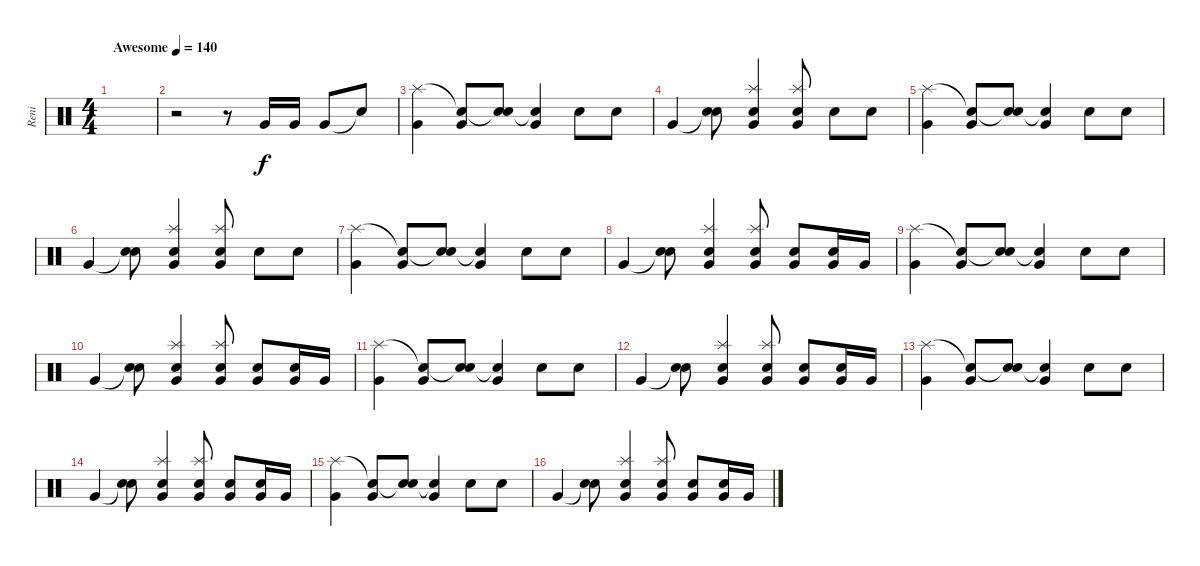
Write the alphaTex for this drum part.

\track ("Reni" "Reni") {instrument percussion}
\staff {score}
\articulation defaults
\ts (4 4)
\tempo (140 "Awesome")
\clef neutral
\ks c
|
r.2 r.8 "Very Low Tom (hit)".16 "Very Low Tom (hit)".16 "Very Low Tom (hit)".8 "Snare (hit)"{t}.8 |
("Splash (hit)" "Very Low Tom (hit)").4 ("Snare (hit)"{t} "Very Low Tom (hit)").8 ("Snare (hit)"{t} "Electric Snare (hit)").8 ("Snare (hit)"{t} "Very Low Tom (hit)").4 "Snare (hit) 2".8 "Electric Snare (hit)".8 |
"Very Low Tom (hit)".4 ("Snare (hit)"{t} "Snare (hit) 2").8 ("Splash (hit)" "Electric Snare (hit)" "Very Low Tom (hit)").4 ("Splash (hit)" "Electric Snare (hit)" "Very Low Tom (hit)").8 "Snare (hit) 2".8 "Electric Snare (hit)".8 |
("Splash (hit)" "Very Low Tom (hit)").4 ("Snare (hit)"{t} "Very Low Tom (hit)").8 ("Snare (hit)"{t} "Electric Snare (hit)").8 ("Snare (hit)"{t} "Very Low Tom (hit)").4 "Snare (hit) 2".8 "Electric Snare (hit)".8 |
"Very Low Tom (hit)".4 ("Snare (hit)"{t} "Snare (hit) 2").8 ("Splash (hit)" "Electric Snare (hit)" "Very Low Tom (hit)").4 ("Splash (hit)" "Electric Snare (hit)" "Very Low Tom (hit)").8 "Snare (hit) 2".8 "Electric Snare (hit)".8 |
("Splash (hit)" "Very Low Tom (hit)").4 ("Snare (hit)"{t} "Very Low Tom (hit)").8 ("Snare (hit)"{t} "Electric Snare (hit)").8 ("Snare (hit)"{t} "Very Low Tom (hit)").4 "Snare (hit) 2".8 "Electric Snare (hit)".8 |
"Very Low Tom (hit)".4 ("Snare (hit)"{t} "Snare (hit) 2").8 ("Splash (hit)" "Electric Snare (hit)" "Very Low Tom (hit)").4 ("Splash (hit)" "Electric Snare (hit)" "Very Low Tom (hit)").8 ("Snare (hit) 2" "Very Low Tom (hit)").8 ("Electric Snare (hit)" "Very Low Tom (hit)").16 "Very Low Tom (hit)".16 |
("Splash (hit)" "Very Low Tom (hit)").4 ("Snare (hit)"{t} "Very Low Tom (hit)").8 ("Snare (hit)"{t} "Electric Snare (hit)").8 ("Snare (hit)"{t} "Very Low Tom (hit)").4 "Snare (hit) 2".8 "Electric Snare (hit)".8 |
"Very Low Tom (hit)".4 ("Snare (hit)"{t} "Snare (hit) 2").8 ("Splash (hit)" "Electric Snare (hit)" "Very Low Tom (hit)").4 ("Splash (hit)" "Electric Snare (hit)" "Very Low Tom (hit)").8 ("Snare (hit) 2" "Very Low Tom (hit)").8 ("Electric Snare (hit)" "Very Low Tom (hit)").16 "Very Low Tom (hit)".16 |
("Splash (hit)" "Very Low Tom (hit)").4 ("Snare (hit)"{t} "Very Low Tom (hit)").8 ("Snare (hit)"{t} "Electric Snare (hit)").8 ("Snare (hit)"{t} "Very Low Tom (hit)").4 "Snare (hit) 2".8 "Electric Snare (hit)".8 |
"Very Low Tom (hit)".4 ("Snare (hit)"{t} "Snare (hit) 2").8 ("Splash (hit)" "Electric Snare (hit)" "Very Low Tom (hit)").4 ("Splash (hit)" "Electric Snare (hit)" "Very Low Tom (hit)").8 ("Snare (hit) 2" "Very Low Tom (hit)").8 ("Electric Snare (hit)" "Very Low Tom (hit)").16 "Very Low Tom (hit)".16 |
("Splash (hit)" "Very Low Tom (hit)").4 ("Snare (hit)"{t} "Very Low Tom (hit)").8 ("Snare (hit)"{t} "Electric Snare (hit)").8 ("Snare (hit)"{t} "Very Low Tom (hit)").4 "Snare (hit) 2".8 "Electric Snare (hit)".8 |
"Very Low Tom (hit)".4 ("Snare (hit)"{t} "Snare (hit) 2").8 ("Splash (hit)" "Electric Snare (hit)" "Very Low Tom (hit)").4 ("Splash (hit)" "Electric Snare (hit)" "Very Low Tom (hit)").8 ("Snare (hit) 2" "Very Low Tom (hit)").8 ("Electric Snare (hit)" "Very Low Tom (hit)").16 "Very Low Tom (hit)".16 |
("Splash (hit)" "Very Low Tom (hit)").4 ("Snare (hit)"{t} "Very Low Tom (hit)").8 ("Snare (hit)"{t} "Electric Snare (hit)").8 ("Snare (hit)"{t} "Very Low Tom (hit)").4 "Snare (hit) 2".8 "Electric Snare (hit)".8 |
"Very Low Tom (hit)".4 ("Snare (hit)"{t} "Snare (hit) 2").8 ("Splash (hit)" "Electric Snare (hit)" "Very Low Tom (hit)").4 ("Splash (hit)" "Electric Snare (hit)" "Very Low Tom (hit)").8 ("Snare (hit) 2" "Very Low Tom (hit)").8 ("Electric Snare (hit)" "Very Low Tom (hit)").16 "Very Low Tom (hit)".16
